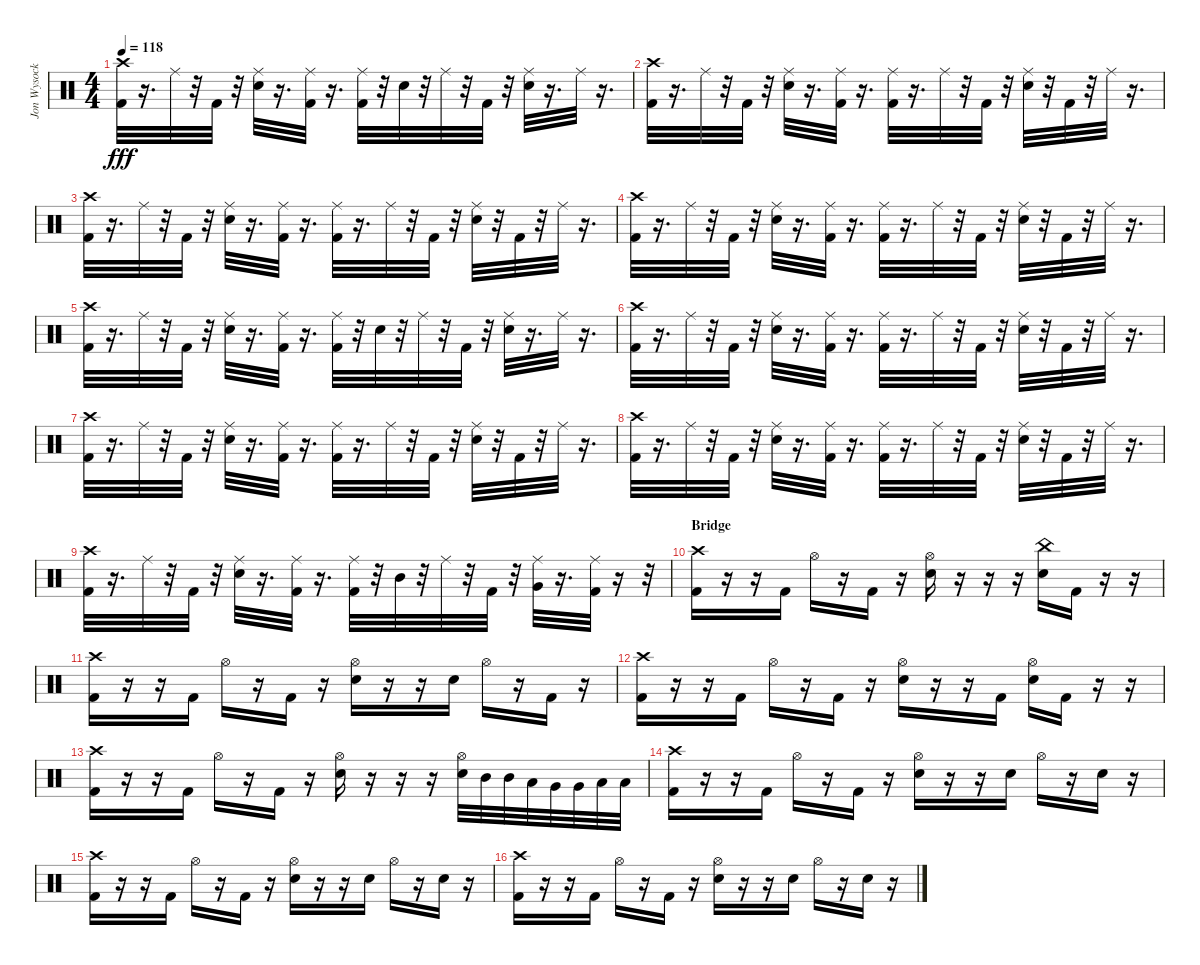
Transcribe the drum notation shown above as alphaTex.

\track ("Jon Wysocki - Drums" "Jon Wysock") {instrument percussion}
\staff {score}
\articulation defaults
\ts (4 4)
\tempo 118
\clef neutral
\ks c
("Crash high (hit)" "Kick (hit) 2").32{dy fff} r.16{d} "Ride (middle)".32 r.32 "Kick (hit) 2".32 r.32 ("Ride (middle)" "Electric Snare (hit)").32 r.16{d} ("Ride (middle)" "Kick (hit) 2").32 r.16{d} ("Ride (middle)" "Kick (hit) 2").32 r.32 "Electric Snare (hit)".32 r.32 "Ride (middle)".32 r.32 "Kick (hit) 2".32 r.32 ("Ride (middle)" "Electric Snare (hit)").32 r.16{d} "Ride (middle)".32 r.16{d} |
("Kick (hit) 2" "Crash high (hit)").32 r.16{d} "Ride (middle)".32 r.32 "Kick (hit) 2".32 r.32 ("Ride (middle)" "Electric Snare (hit)").32 r.16{d} ("Ride (middle)" "Kick (hit) 2").32 r.16{d} ("Ride (middle)" "Kick (hit) 2").32 r.16{d} "Ride (middle)".32 r.32 "Kick (hit) 2".32 r.32 ("Ride (middle)" "Electric Snare (hit)").32 r.32 "Kick (hit) 2".32 r.32 "Ride (middle)".32 r.16{d} |
("Crash high (hit)" "Kick (hit) 2").32 r.16{d} "Ride (middle)".32 r.32 "Kick (hit) 2".32 r.32 ("Electric Snare (hit)" "Ride (middle)").32 r.16{d} ("Kick (hit) 2" "Ride (middle)").32 r.16{d} ("Kick (hit) 2" "Ride (middle)").32 r.16{d} "Ride (middle)".32 r.32 "Kick (hit) 2".32 r.32 ("Electric Snare (hit)" "Ride (middle)").32 r.32 "Kick (hit) 2".32 r.32 "Ride (middle)".32 r.16{d} |
("Crash high (hit)" "Kick (hit) 2").32 r.16{d} "Ride (middle)".32 r.32 "Kick (hit) 2".32 r.32 ("Electric Snare (hit)" "Ride (middle)").32 r.16{d} ("Kick (hit) 2" "Ride (middle)").32 r.16{d} ("Kick (hit) 2" "Ride (middle)").32 r.16{d} "Ride (middle)".32 r.32 "Kick (hit) 2".32 r.32 ("Electric Snare (hit)" "Ride (middle)").32 r.32 "Kick (hit) 2".32 r.32 "Ride (middle)".32 r.16{d} |
("Crash high (hit)" "Kick (hit) 2").32 r.16{d} "Ride (middle)".32 r.32 "Kick (hit) 2".32 r.32 ("Ride (middle)" "Electric Snare (hit)").32 r.16{d} ("Ride (middle)" "Kick (hit) 2").32 r.16{d} ("Ride (middle)" "Kick (hit) 2").32 r.32 "Electric Snare (hit)".32 r.32 "Ride (middle)".32 r.32 "Kick (hit) 2".32 r.32 ("Ride (middle)" "Electric Snare (hit)").32 r.16{d} "Ride (middle)".32 r.16{d} |
("Kick (hit) 2" "Crash high (hit)").32 r.16{d} "Ride (middle)".32 r.32 "Kick (hit) 2".32 r.32 ("Ride (middle)" "Electric Snare (hit)").32 r.16{d} ("Ride (middle)" "Kick (hit) 2").32 r.16{d} ("Ride (middle)" "Kick (hit) 2").32 r.16{d} "Ride (middle)".32 r.32 "Kick (hit) 2".32 r.32 ("Ride (middle)" "Electric Snare (hit)").32 r.32 "Kick (hit) 2".32 r.32 "Ride (middle)".32 r.16{d} |
("Crash high (hit)" "Kick (hit) 2").32 r.16{d} "Ride (middle)".32 r.32 "Kick (hit) 2".32 r.32 ("Electric Snare (hit)" "Ride (middle)").32 r.16{d} ("Kick (hit) 2" "Ride (middle)").32 r.16{d} ("Kick (hit) 2" "Ride (middle)").32 r.16{d} "Ride (middle)".32 r.32 "Kick (hit) 2".32 r.32 ("Electric Snare (hit)" "Ride (middle)").32 r.32 "Kick (hit) 2".32 r.32 "Ride (middle)".32 r.16{d} |
("Crash high (hit)" "Kick (hit) 2").32 r.16{d} "Ride (middle)".32 r.32 "Kick (hit) 2".32 r.32 ("Electric Snare (hit)" "Ride (middle)").32 r.16{d} ("Kick (hit) 2" "Ride (middle)").32 r.16{d} ("Kick (hit) 2" "Ride (middle)").32 r.16{d} "Ride (middle)".32 r.32 "Kick (hit) 2".32 r.32 ("Electric Snare (hit)" "Ride (middle)").32 r.32 "Kick (hit) 2".32 r.32 "Ride (middle)".32 r.16{d} |
("Crash high (hit)" "Kick (hit) 2").32 r.16{d} "Ride (middle)".32 r.32 "Kick (hit) 2".32 r.32 ("Ride (middle)" "Electric Snare (hit)").32 r.16{d} ("Ride (middle)" "Kick (hit) 2").32 r.16{d} ("Ride (middle)" "Kick (hit) 2").32 r.32 "Mid Tom (hit)".32 r.32 "Ride (middle)".32 r.32 "Kick (hit) 2".32 r.32 ("Very Low Tom (hit)" "Ride (middle)").32 r.16{d} ("Kick (hit) 2" "Ride (middle)").32 r.16 r.32 |
\section ("" "Bridge")
("Crash high (hit)" "Kick (hit) 2").16 r.16 r.16 "Kick (hit) 2".16 "Hi-Hat (open)".16 r.16 "Kick (hit) 2".16 r.16 ("Hi-Hat (open)" "Electric Snare (hit)").16 r.16 r.16 r.16 ("China (hit)" "Electric Snare (hit)").16 "Kick (hit) 2".16 r.16 r.16 |
("Crash high (hit)" "Kick (hit) 2").16 r.16 r.16 "Kick (hit) 2".16 "Hi-Hat (open)".16 r.16 "Kick (hit) 2".16 r.16 ("Hi-Hat (open)" "Electric Snare (hit)").16 r.16 r.16 "Electric Snare (hit)".16 "Hi-Hat (open)".16 r.16 "Kick (hit) 2".16 r.16 |
("Crash high (hit)" "Kick (hit) 2").16 r.16 r.16 "Kick (hit) 2".16 "Hi-Hat (open)".16 r.16 "Kick (hit) 2".16 r.16 ("Hi-Hat (open)" "Electric Snare (hit)").16 r.16 r.16 "Kick (hit) 2".16 ("Hi-Hat (open)" "Electric Snare (hit)").16 "Kick (hit) 2".16 r.16 r.16 |
("Crash high (hit)" "Kick (hit) 2").16 r.16 r.16 "Kick (hit) 2".16 "Hi-Hat (open)".16 r.16 "Kick (hit) 2".16 r.16 ("Hi-Hat (open)" "Electric Snare (hit)").16 r.16 r.16 r.16 ("Hi-Hat (open)" "Electric Snare (hit)").32 "Mid Tom (hit)".32 "Mid Tom (hit)".32 "Low Tom (hit)".32 "Very Low Tom (hit)".32 "Very Low Tom (hit)".32 "Low Floor Tom (hit)".32 "Low Floor Tom (hit)".32 |
("Crash high (hit)" "Kick (hit) 2").16 r.16 r.16 "Kick (hit) 2".16 "Hi-Hat (open)".16 r.16 "Kick (hit) 2".16 r.16 ("Hi-Hat (open)" "Electric Snare (hit)").16 r.16 r.16 "Electric Snare (hit)".16 "Hi-Hat (open)".16 r.16 "Electric Snare (hit)".16 r.16 |
("Crash high (hit)" "Kick (hit) 2").16 r.16 r.16 "Kick (hit) 2".16 "Hi-Hat (open)".16 r.16 "Kick (hit) 2".16 r.16 ("Hi-Hat (open)" "Electric Snare (hit)").16 r.16 r.16 "Electric Snare (hit)".16 "Hi-Hat (open)".16 r.16 "Electric Snare (hit)".16 r.16 |
("Crash high (hit)" "Kick (hit) 2").16 r.16 r.16 "Kick (hit) 2".16 "Hi-Hat (open)".16 r.16 "Kick (hit) 2".16 r.16 ("Hi-Hat (open)" "Electric Snare (hit)").16 r.16 r.16 "Electric Snare (hit)".16 "Hi-Hat (open)".16 r.16 "Electric Snare (hit)".16 r.16
